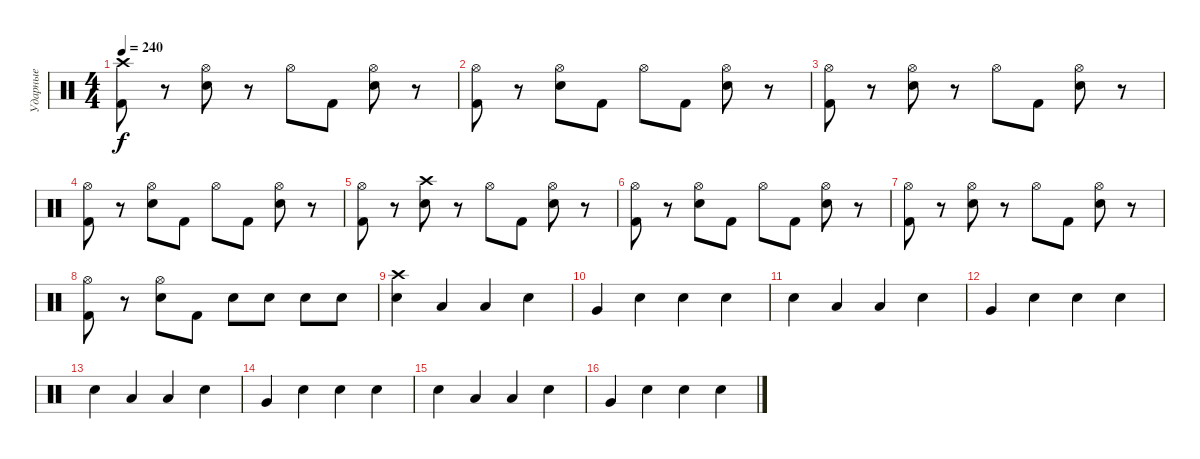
\track ("Ударные" "Ударные") {instrument percussion}
\staff {score}
\articulation defaults
\ts (4 4)
\tempo 240
\clef neutral
\ks c
("Crash high (hit)" "Kick (hit) 2").8{dy f} r.8 ("Hi-Hat (open)" "Electric Snare (hit)").8 r.8 "Hi-Hat (open)".8 "Kick (hit) 2".8 ("Hi-Hat (open)" "Electric Snare (hit)").8 r.8 |
("Hi-Hat (open)" "Kick (hit) 2").8 r.8 ("Hi-Hat (open)" "Electric Snare (hit)").8 "Kick (hit) 2".8 "Hi-Hat (open)".8 "Kick (hit) 2".8 ("Hi-Hat (open)" "Electric Snare (hit)").8 r.8 |
("Hi-Hat (open)" "Kick (hit) 2").8 r.8 ("Hi-Hat (open)" "Electric Snare (hit)").8 r.8 "Hi-Hat (open)".8 "Kick (hit) 2".8 ("Hi-Hat (open)" "Electric Snare (hit)").8 r.8 |
("Hi-Hat (open)" "Kick (hit) 2").8 r.8 ("Hi-Hat (open)" "Electric Snare (hit)").8 "Kick (hit) 2".8 "Hi-Hat (open)".8 "Kick (hit) 2".8 ("Hi-Hat (open)" "Electric Snare (hit)").8 r.8 |
("Hi-Hat (open)" "Kick (hit) 2").8 r.8 ("Crash high (hit)" "Electric Snare (hit)").8 r.8 "Hi-Hat (open)".8 "Kick (hit) 2".8 ("Hi-Hat (open)" "Electric Snare (hit)").8 r.8 |
("Hi-Hat (open)" "Kick (hit) 2").8 r.8 ("Hi-Hat (open)" "Electric Snare (hit)").8 "Kick (hit) 2".8 "Hi-Hat (open)".8 "Kick (hit) 2".8 ("Hi-Hat (open)" "Electric Snare (hit)").8 r.8 |
("Hi-Hat (open)" "Kick (hit) 2").8 r.8 ("Hi-Hat (open)" "Electric Snare (hit)").8 r.8 "Hi-Hat (open)".8 "Kick (hit) 2".8 ("Hi-Hat (open)" "Electric Snare (hit)").8 r.8 |
("Hi-Hat (open)" "Kick (hit) 2").8 r.8 ("Hi-Hat (open)" "Electric Snare (hit)").8 "Kick (hit) 2".8 "Electric Snare (hit)".8 "Electric Snare (hit)".8 "Electric Snare (hit)".8 "Electric Snare (hit)".8 |
("Crash high (hit)" "Electric Snare (hit)").4 "Low Tom (hit)".4 "Low Tom (hit)".4 "Electric Snare (hit)".4 |
"Very Low Tom (hit)".4 "Electric Snare (hit)".4 "Electric Snare (hit)".4 "Electric Snare (hit)".4 |
"Electric Snare (hit)".4 "Low Tom (hit)".4 "Low Tom (hit)".4 "Electric Snare (hit)".4 |
"Very Low Tom (hit)".4 "Electric Snare (hit)".4 "Electric Snare (hit)".4 "Electric Snare (hit)".4 |
"Electric Snare (hit)".4 "Low Tom (hit)".4 "Low Tom (hit)".4 "Electric Snare (hit)".4 |
"Very Low Tom (hit)".4 "Electric Snare (hit)".4 "Electric Snare (hit)".4 "Electric Snare (hit)".4 |
"Electric Snare (hit)".4 "Low Tom (hit)".4 "Low Tom (hit)".4 "Electric Snare (hit)".4 |
"Very Low Tom (hit)".4 "Electric Snare (hit)".4 "Electric Snare (hit)".4 "Electric Snare (hit)".4
